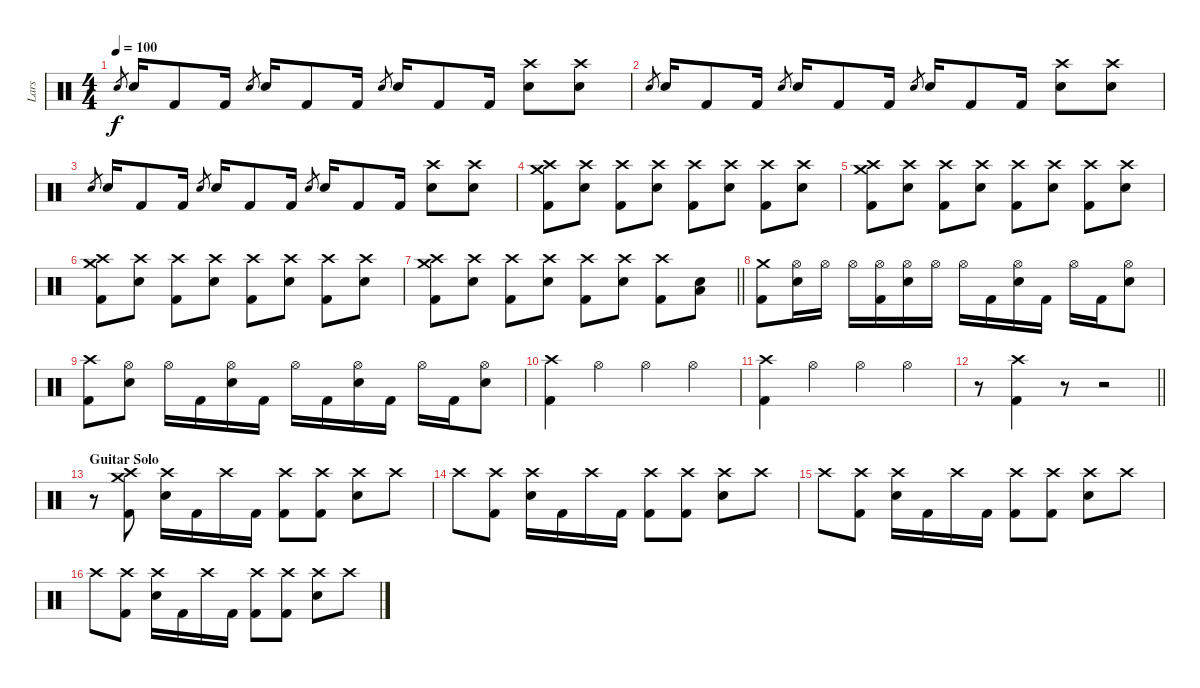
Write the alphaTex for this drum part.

\track ("Lars" "Lars") {instrument percussion}
\staff {score}
\articulation defaults
\ts (4 4)
\tempo 100
\clef neutral
\ks c "Electric Snare (hit)".8{gr dy f} "Electric Snare (hit)".16 "Kick (hit) 2".8 "Kick (hit) 2".16 "Electric Snare (hit)".8{gr} "Electric Snare (hit)".16 "Kick (hit) 2".8 "Kick (hit) 2".16 "Electric Snare (hit)".8{gr} "Electric Snare (hit)".16 "Kick (hit) 2".8 "Kick (hit) 2".16
("Crash high (hit)" "Electric Snare (hit)").8 ("Crash high (hit)" "Electric Snare (hit)").8 |
"Electric Snare (hit)".8{gr} "Electric Snare (hit)".16 "Kick (hit) 2".8 "Kick (hit) 2".16 "Electric Snare (hit)".8{gr} "Electric Snare (hit)".16 "Kick (hit) 2".8 "Kick (hit) 2".16 "Electric Snare (hit)".8{gr} "Electric Snare (hit)".16 "Kick (hit) 2".8 "Kick (hit) 2".16 ("Crash high (hit)" "Electric Snare (hit)").8 ("Crash high (hit)" "Electric Snare (hit)").8 |
"Electric Snare (hit)".8{gr} "Electric Snare (hit)".16 "Kick (hit) 2".8 "Kick (hit) 2".16 "Electric Snare (hit)".8{gr} "Electric Snare (hit)".16 "Kick (hit) 2".8 "Kick (hit) 2".16 "Electric Snare (hit)".8{gr} "Electric Snare (hit)".16 "Kick (hit) 2".8 "Kick (hit) 2".16 ("Crash high (hit)" "Electric Snare (hit)").8 ("Crash high (hit)" "Electric Snare (hit)").8 |
("Crash high (hit)" "Crash medium (hit)" "Kick (hit) 2").8 ("Crash high (hit)" "Electric Snare (hit)").8 ("Crash high (hit)" "Kick (hit) 2").8 ("Crash high (hit)" "Electric Snare (hit)").8 ("Crash high (hit)" "Kick (hit) 2").8 ("Crash high (hit)" "Electric Snare (hit)").8 ("Crash high (hit)" "Kick (hit) 2").8 ("Crash high (hit)" "Electric Snare (hit)").8 |
("Crash high (hit)" "Crash medium (hit)" "Kick (hit) 2").8 ("Crash high (hit)" "Electric Snare (hit)").8 ("Crash high (hit)" "Kick (hit) 2").8 ("Crash high (hit)" "Electric Snare (hit)").8 ("Crash high (hit)" "Kick (hit) 2").8 ("Crash high (hit)" "Electric Snare (hit)").8 ("Crash high (hit)" "Kick (hit) 2").8 ("Crash high (hit)" "Electric Snare (hit)").8 |
("Crash high (hit)" "Crash medium (hit)" "Kick (hit) 2").8 ("Crash high (hit)" "Electric Snare (hit)").8 ("Crash high (hit)" "Kick (hit) 2").8 ("Crash high (hit)" "Electric Snare (hit)").8 ("Crash high (hit)" "Kick (hit) 2").8 ("Crash high (hit)" "Electric Snare (hit)").8 ("Crash high (hit)" "Kick (hit) 2").8 ("Crash high (hit)" "Electric Snare (hit)").8 |
\barLineRight lightlight
("Crash high (hit)" "Crash medium (hit)" "Kick (hit) 2").8 ("Crash high (hit)" "Electric Snare (hit)").8 ("Crash high (hit)" "Kick (hit) 2").8 ("Crash high (hit)" "Electric Snare (hit)").8 ("Crash high (hit)" "Kick (hit) 2").8 ("Crash high (hit)" "Electric Snare (hit)").8 ("Crash high (hit)" "Kick (hit) 2").8 ("Low Floor Tom (hit)" "Electric Snare (hit)").8 |
("Crash medium (hit)" "Kick (hit) 2").8 ("Hi-Hat (open)" "Electric Snare (hit)").16 "Hi-Hat (open)".16 "Hi-Hat (open)".16 ("Hi-Hat (open)" "Kick (hit) 2").16 ("Hi-Hat (open)" "Electric Snare (hit)").16 "Hi-Hat (open)".16 "Hi-Hat (open)".16 "Kick (hit) 2".16 ("Hi-Hat (open)" "Electric Snare (hit)").16 "Kick (hit) 2".16 "Hi-Hat (open)".16 "Kick (hit) 2".16 ("Hi-Hat (open)" "Electric Snare (hit)").8 |
("Crash high (hit)" "Kick (hit) 2").8 ("Hi-Hat (open)" "Electric Snare (hit)").8 "Hi-Hat (open)".16 "Kick (hit) 2".16 ("Hi-Hat (open)" "Electric Snare (hit)").16 "Kick (hit) 2".16 "Hi-Hat (open)".16 "Kick (hit) 2".16 ("Hi-Hat (open)" "Electric Snare (hit)").16 "Kick (hit) 2".16 "Hi-Hat (open)".16 "Kick (hit) 2".16 ("Hi-Hat (open)" "Electric Snare (hit)").8 |
("Crash high (hit)" "Kick (hit) 2").4 "Hi-Hat (open)".4 "Hi-Hat (open)".4 "Hi-Hat (open)".4 |
("Crash high (hit)" "Kick (hit) 2").4 "Hi-Hat (open)".4 "Hi-Hat (open)".4 "Hi-Hat (open)".4 |
\barLineRight lightlight
r.8 ("Crash high (hit)" "Kick (hit) 2").4 r.8 r.2 |
\section ("" "Guitar Solo")
r.8 ("Crash medium (hit)" "Crash high (hit)" "Kick (hit) 2").8 ("Crash high (hit)" "Electric Snare (hit)").16 "Kick (hit) 2".16 "Crash high (hit)".16 "Kick (hit) 2".16 ("Crash high (hit)" "Kick (hit) 2").8 ("Crash high (hit)" "Kick (hit) 2").8 ("Crash high (hit)" "Electric Snare (hit)").8 "Crash high (hit)".8 |
"Crash high (hit)".8 ("Crash high (hit)" "Kick (hit) 2").8 ("Crash high (hit)" "Electric Snare (hit)").16 "Kick (hit) 2".16 "Crash high (hit)".16 "Kick (hit) 2".16 ("Crash high (hit)" "Kick (hit) 2").8 ("Crash high (hit)" "Kick (hit) 2").8 ("Crash high (hit)" "Electric Snare (hit)").8 "Crash high (hit)".8 |
"Crash high (hit)".8 ("Crash high (hit)" "Kick (hit) 2").8 ("Crash high (hit)" "Electric Snare (hit)").16 "Kick (hit) 2".16 "Crash high (hit)".16 "Kick (hit) 2".16 ("Crash high (hit)" "Kick (hit) 2").8 ("Crash high (hit)" "Kick (hit) 2").8 ("Crash high (hit)" "Electric Snare (hit)").8 "Crash high (hit)".8 |
"Crash high (hit)".8 ("Crash high (hit)" "Kick (hit) 2").8 ("Crash high (hit)" "Electric Snare (hit)").16 "Kick (hit) 2".16 "Crash high (hit)".16 "Kick (hit) 2".16 ("Crash high (hit)" "Kick (hit) 2").8 ("Crash high (hit)" "Kick (hit) 2").8 ("Crash high (hit)" "Electric Snare (hit)").8 "Crash high (hit)".8
